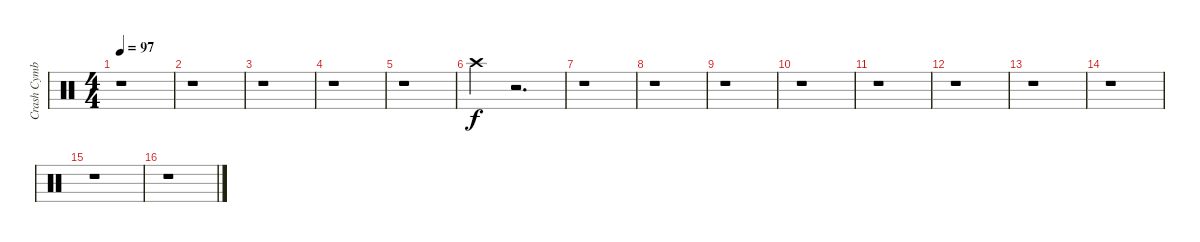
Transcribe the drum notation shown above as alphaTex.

\track ("Crash Cymbal" "Crash Cymb") {instrument percussion}
\staff {score}
\articulation defaults
\ts (4 4)
\tempo 97
\clef neutral
\ks c
r.1{dy f} |
r.1 |
r.1 |
r.1 |
r.1 |
"Crash high (hit)".4 r.2{d} |
r.1 |
r.1 |
r.1 |
r.1 |
r.1 |
r.1 |
r.1 |
r.1 |
r.1 |
r.1
